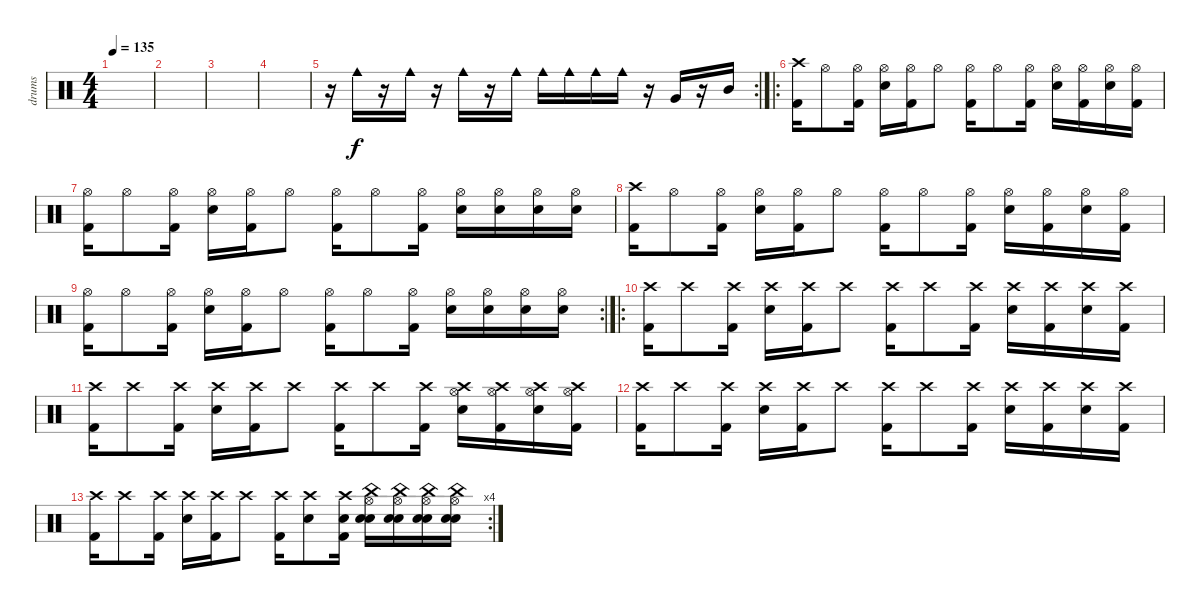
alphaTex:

\track ("drums" "drums") {instrument percussion}
\staff {score}
\articulation defaults
\ts (4 4)
\tempo 135
\clef neutral
\ks c
|
|
|
|
\rc 2
r.16 "Cowbell medium (hit)".16{dy f} r.16 "Cowbell medium (hit)".16 r.16 "Cowbell medium (hit)".16 r.16 "Cowbell medium (hit)".16 "Cowbell medium (hit)".16 "Cowbell medium (hit)".16 "Cowbell medium (hit)".16 "Cowbell medium (hit)".16 r.16 "Very Low Tom (hit)".16 r.16 "Mid Tom (hit)".16 |
\ro
("Crash high (hit)" "Kick (hit) 2").16 "Hi-Hat (open)".8 ("Hi-Hat (open)" "Kick (hit) 2").16 ("Hi-Hat (open)" "Electric Snare (hit)").16 ("Hi-Hat (open)" "Kick (hit) 2").16 "Hi-Hat (open)".8 ("Hi-Hat (open)" "Kick (hit) 2").16 "Hi-Hat (open)".8 ("Hi-Hat (open)" "Kick (hit) 2").16 ("Hi-Hat (open)" "Electric Snare (hit)").16 ("Hi-Hat (open)" "Kick (hit) 2").16 ("Hi-Hat (open)" "Electric Snare (hit)").16 ("Hi-Hat (open)" "Kick (hit) 2").16 |
("Hi-Hat (open)" "Kick (hit) 2").16 "Hi-Hat (open)".8 ("Hi-Hat (open)" "Kick (hit) 2").16 ("Hi-Hat (open)" "Electric Snare (hit)").16 ("Hi-Hat (open)" "Kick (hit) 2").16 "Hi-Hat (open)".8 ("Hi-Hat (open)" "Kick (hit) 2").16 "Hi-Hat (open)".8 ("Hi-Hat (open)" "Kick (hit) 2").16 ("Hi-Hat (open)" "Electric Snare (hit)").16 ("Hi-Hat (open)" "Electric Snare (hit)").16 ("Hi-Hat (open)" "Electric Snare (hit)").16 ("Hi-Hat (open)" "Electric Snare (hit)").16 |
("Crash high (hit)" "Kick (hit) 2").16 "Hi-Hat (open)".8 ("Hi-Hat (open)" "Kick (hit) 2").16 ("Hi-Hat (open)" "Electric Snare (hit)").16 ("Hi-Hat (open)" "Kick (hit) 2").16 "Hi-Hat (open)".8 ("Hi-Hat (open)" "Kick (hit) 2").16 "Hi-Hat (open)".8 ("Hi-Hat (open)" "Kick (hit) 2").16 ("Hi-Hat (open)" "Electric Snare (hit)").16 ("Hi-Hat (open)" "Kick (hit) 2").16 ("Hi-Hat (open)" "Electric Snare (hit)").16 ("Hi-Hat (open)" "Kick (hit) 2").16 |
\rc 2
("Hi-Hat (open)" "Kick (hit) 2").16 "Hi-Hat (open)".8 ("Hi-Hat (open)" "Kick (hit) 2").16 ("Hi-Hat (open)" "Electric Snare (hit)").16 ("Hi-Hat (open)" "Kick (hit) 2").16 "Hi-Hat (open)".8 ("Hi-Hat (open)" "Kick (hit) 2").16 "Hi-Hat (open)".8 ("Hi-Hat (open)" "Kick (hit) 2").16 ("Hi-Hat (open)" "Electric Snare (hit)").16 ("Hi-Hat (open)" "Electric Snare (hit)").16 ("Hi-Hat (open)" "Electric Snare (hit)").16 ("Hi-Hat (open)" "Electric Snare (hit)").16 |
\ro
("Crash high (hit)" "Kick (hit) 2").16 "Crash high (hit)".8 ("Crash high (hit)" "Kick (hit) 2").16 ("Crash high (hit)" "Electric Snare (hit)").16 ("Crash high (hit)" "Kick (hit) 2").16 "Crash high (hit)".8 ("Crash high (hit)" "Kick (hit) 2").16 "Crash high (hit)".8 ("Crash high (hit)" "Kick (hit) 2").16 ("Crash high (hit)" "Electric Snare (hit)").16 ("Crash high (hit)" "Kick (hit) 2").16 ("Crash high (hit)" "Electric Snare (hit)").16 ("Crash high (hit)" "Kick (hit) 2").16 |
("Crash high (hit)" "Kick (hit) 2").16 "Crash high (hit)".8 ("Crash high (hit)" "Kick (hit) 2").16 ("Crash high (hit)" "Electric Snare (hit)").16 ("Crash high (hit)" "Kick (hit) 2").16 "Crash high (hit)".8 ("Crash high (hit)" "Kick (hit) 2").16 "Crash high (hit)".8 ("Crash high (hit)" "Kick (hit) 2").16 ("Crash high (hit)" "Hi-Hat (open)" "Electric Snare (hit)").16 ("Crash high (hit)" "Hi-Hat (open)" "Kick (hit) 2").16 ("Crash high (hit)" "Hi-Hat (open)" "Electric Snare (hit)").16 ("Crash high (hit)" "Hi-Hat (open)" "Kick (hit) 2").16 |
("Crash high (hit)" "Kick (hit) 2").16 "Crash high (hit)".8 ("Crash high (hit)" "Kick (hit) 2").16 ("Crash high (hit)" "Electric Snare (hit)").16 ("Crash high (hit)" "Kick (hit) 2").16 "Crash high (hit)".8 ("Crash high (hit)" "Kick (hit) 2").16 "Crash high (hit)".8 ("Crash high (hit)" "Kick (hit) 2").16 ("Crash high (hit)" "Electric Snare (hit)").16 ("Crash high (hit)" "Kick (hit) 2").16 ("Crash high (hit)" "Electric Snare (hit)").16 ("Crash high (hit)" "Kick (hit) 2").16 |
\rc 4
("Crash high (hit)" "Kick (hit) 2").16 "Crash high (hit)".8 ("Crash high (hit)" "Kick (hit) 2").16 ("Crash high (hit)" "Electric Snare (hit)").16 ("Crash high (hit)" "Kick (hit) 2").16 "Crash high (hit)".8 ("Crash high (hit)" "Kick (hit) 2").16 ("Crash high (hit)" "Electric Snare (hit)").8 ("Crash high (hit)" "Electric Snare (hit)" "Kick (hit) 2").16 ("China (hit)" "Hi-Hat (open)" "Electric Snare (hit)" "Electric Snare (hit)").16 ("China (hit)" "Hi-Hat (open)" "Electric Snare (hit)" "Electric Snare (hit)").16 ("China (hit)" "Hi-Hat (open)" "Electric Snare (hit)" "Electric Snare (hit)").16 ("China (hit)" "Hi-Hat (open)" "Electric Snare (hit)" "Electric Snare (hit)").16
